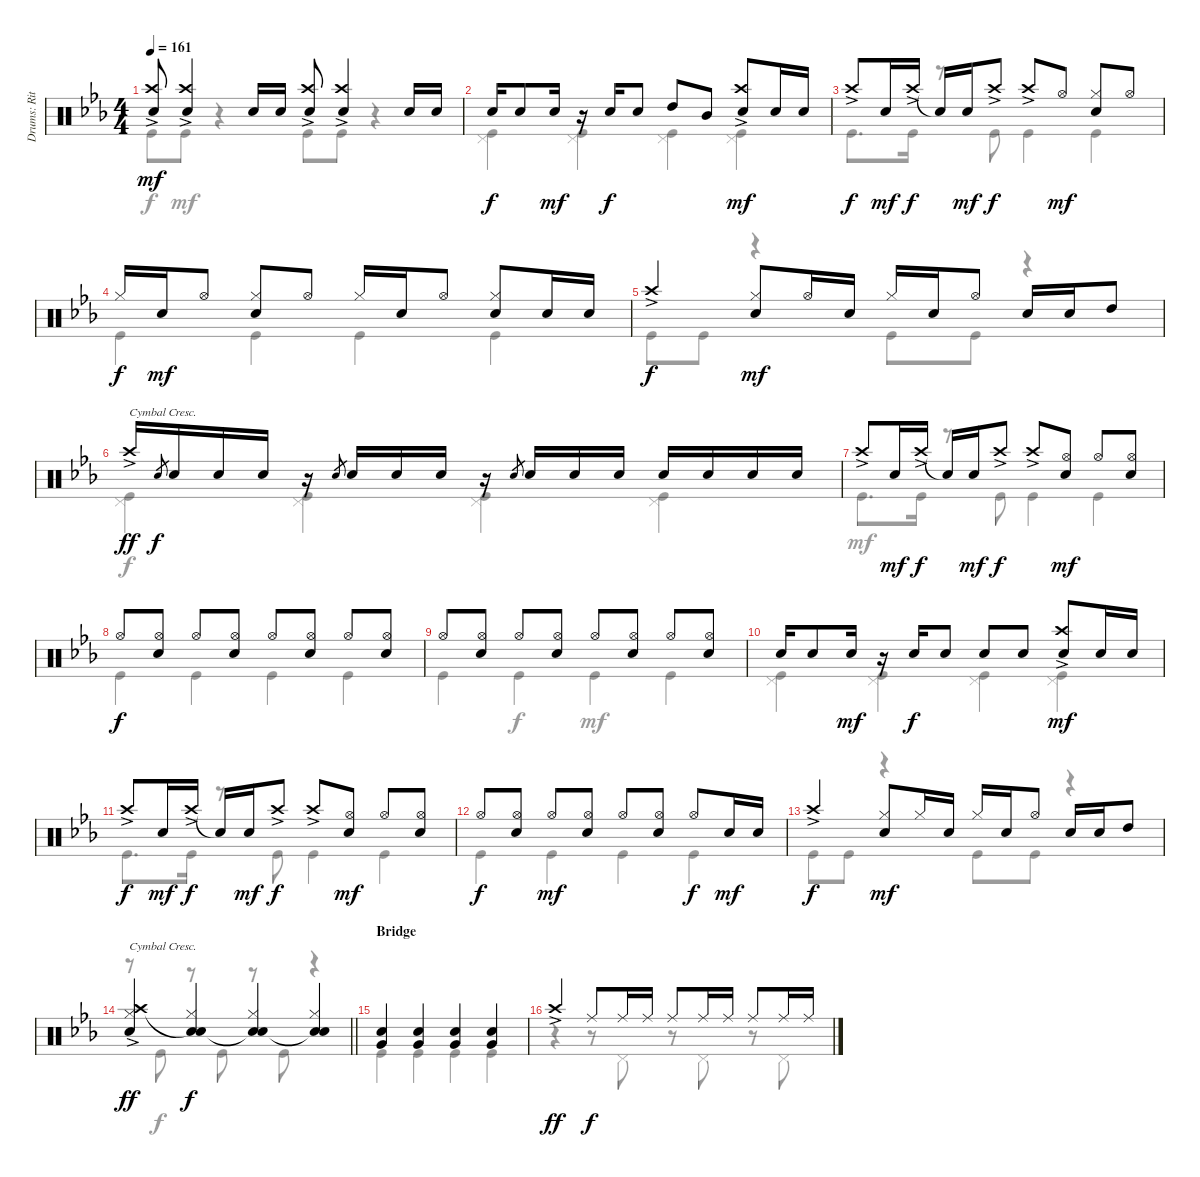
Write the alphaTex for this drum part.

\track ("Drums: Ritsu Tianaka" "Drums: Rit") {instrument percussion}
\staff {score}
\articulation defaults
\voice
\ts (4 4)
\tempo 161
\clef neutral
\ks eb
("Crash high (hit)"{ac} "Snare (hit) 2").8{dy mf} ("Crash high (hit)"{ac} "Snare (hit) 2").4 "Snare (hit) 2".16 "Snare (hit) 2".16 ("Crash high (hit)"{ac} "Snare (hit) 2").8 ("Crash high (hit)"{ac} "Snare (hit) 2").4 "Snare (hit) 2".16 "Snare (hit) 2".16 |
"Snare (hit) 2".16{dy f} "Snare (hit) 2".8 "Snare (hit) 2".16{dy mf} r.16 "Snare (hit) 2".16{dy f} "Snare (hit) 2".8 "High Tom (hit)".8 "Mid Tom (hit)".8 ("Crash high (hit)"{ac} "Snare (hit) 2").8{dy mf} "Snare (hit) 2".16 "Snare (hit) 2".16 |
"Crash high (hit)"{ac}.8{dy f} "Snare (hit) 2".16{dy mf} "Crash high (hit)"{ac}.16{dy f} "Snare (hit)"{t}.16 "Snare (hit) 2".16{dy mf} "Crash high (hit)"{ac}.8{dy f} "Crash high (hit)"{ac}.8 "Hi-Hat (open)".8{dy mf} ("Hi-Hat (closed)" "Snare (hit) 2").8 "Hi-Hat (open)".8 |
"Hi-Hat (closed)".16{dy f} "Snare (hit) 2".16{dy mf} "Hi-Hat (open)".8 ("Hi-Hat (closed)" "Snare (hit) 2").8 "Hi-Hat (open)".8 "Hi-Hat (closed)".16 "Snare (hit) 2".16 "Hi-Hat (open)".8 ("Hi-Hat (closed)" "Snare (hit) 2").8 "Snare (hit) 2".16 "Snare (hit) 2".16 |
"Crash high (hit)"{ac}.4{dy f} ("Hi-Hat (closed)" "Snare (hit) 2").8{dy mf} "Hi-Hat (open)".16 "Snare (hit) 2".16 "Hi-Hat (closed)".16 "Snare (hit) 2".16 "Hi-Hat (open)".8 "Snare (hit) 2".16 "Snare (hit) 2".16 "High Tom (hit)".8 |
"Crash high (hit)"{ac}.16{txt "Cymbal Cresc." dy ff} "Snare (hit) 2".8{gr dy f} "Snare (hit) 2".16 "Snare (hit) 2".16 "Snare (hit) 2".16 r.16 "Snare (hit) 2".8{gr} "Snare (hit) 2".16 "Snare (hit) 2".16 "Snare (hit) 2".16 r.16 "Snare (hit) 2".8{gr} "Snare (hit) 2".16 "Snare (hit) 2".16 "Snare (hit) 2".16 "Snare (hit) 2".16 "Snare (hit) 2".16 "Snare (hit) 2".16 "Snare (hit) 2".16 |
"Crash high (hit)"{ac}.8 "Snare (hit) 2".16{dy mf} "Crash high (hit)"{ac}.16{dy f} "Snare (hit)"{t}.16 "Snare (hit) 2".16{dy mf} "Crash high (hit)"{ac}.8{dy f} "Crash high (hit)"{ac}.8 ("Hi-Hat (open)" "Snare (hit) 2").8{dy mf} "Hi-Hat (open)".8 ("Hi-Hat (open)" "Snare (hit) 2").8 |
"Hi-Hat (open)".8{dy f} ("Hi-Hat (open)" "Snare (hit) 2").8 "Hi-Hat (open)".8 ("Hi-Hat (open)" "Snare (hit) 2").8 "Hi-Hat (open)".8 ("Hi-Hat (open)" "Snare (hit) 2").8 "Hi-Hat (open)".8 ("Hi-Hat (open)" "Snare (hit) 2").8 |
"Hi-Hat (open)".8 ("Hi-Hat (open)" "Snare (hit) 2").8 "Hi-Hat (open)".8 ("Hi-Hat (open)" "Snare (hit) 2").8 "Hi-Hat (open)".8 ("Hi-Hat (open)" "Snare (hit) 2").8 "Hi-Hat (open)".8 ("Hi-Hat (open)" "Snare (hit) 2").8 |
"Snare (hit) 2".16 "Snare (hit) 2".8 "Snare (hit) 2".16{dy mf} r.16 "Snare (hit) 2".16{dy f} "Snare (hit) 2".8 "Snare (hit) 2".8 "Snare (hit) 2".8 ("Crash high (hit)"{ac} "Snare (hit) 2").8{dy mf} "Snare (hit) 2".16 "Snare (hit) 2".16 |
"Crash high (hit)"{ac}.8{dy f} "Snare (hit) 2".16{dy mf} "Crash high (hit)"{ac}.16{dy f} "Snare (hit)"{t}.16 "Snare (hit) 2".16{dy mf} "Crash high (hit)"{ac}.8{dy f} "Crash high (hit)"{ac}.8 ("Hi-Hat (open)" "Snare (hit) 2").8{dy mf} "Hi-Hat (open)".8 ("Hi-Hat (open)" "Snare (hit) 2").8 |
"Hi-Hat (open)".8{dy f} ("Hi-Hat (open)" "Snare (hit) 2").8 "Hi-Hat (open)".8{dy mf} ("Hi-Hat (open)" "Snare (hit) 2").8 "Hi-Hat (open)".8 ("Hi-Hat (open)" "Snare (hit) 2").8 "Hi-Hat (open)".8{dy f} "Snare (hit) 2".16{dy mf} "Snare (hit) 2".16 |
"Crash high (hit)"{ac}.4{dy f} ("Hi-Hat (closed)" "Snare (hit) 2").8{dy mf} "Hi-Hat (closed)".16 "Snare (hit) 2".16 "Hi-Hat (closed)".16 "Snare (hit) 2".16 "Hi-Hat (open)".8 "Snare (hit) 2".16 "Snare (hit) 2".16 "High Tom (hit)".8 |
\barLineRight lightlight
("Crash high (hit)"{ac} "Hi-Hat (closed)" "Snare (hit) 2").4{txt "Cymbal Cresc." dy ff} ("Snare (hit)"{t} "Hi-Hat (closed)" "Snare (hit) 2").4{dy f} ("Snare (hit)"{t} "Hi-Hat (closed)" "Snare (hit) 2").4 ("Snare (hit)"{t} "Hi-Hat (closed)" "Snare (hit) 2").4 |
\section ("" "Bridge")
("Snare (hit) 2" "Very Low Tom (hit)").4 ("Snare (hit) 2" "Very Low Tom (hit)").4 ("Snare (hit) 2" "Very Low Tom (hit)").4 ("Snare (hit) 2" "Very Low Tom (hit)").4 |
"Crash high (hit)"{ac}.4{dy ff} "Ride (middle)".8{dy f} "Ride (middle)".16 "Ride (middle)".16 "Ride (middle)".8 "Ride (middle)".16 "Ride (middle)".16 "Ride (middle)".8 "Ride (middle)".16 "Ride (middle)".16
\voice
\clef neutral
\ottava regular
\simile none
\ks eb "Kick (hit)".8{dy f} "Kick (hit)".8{dy mf}
r.4 "Kick (hit)".8 "Kick (hit)".8 r.4 |
("Pedal Hi-Hat (hit)" "Kick (hit)").4 ("Pedal Hi-Hat (hit)" "Kick (hit)").4 ("Pedal Hi-Hat (hit)" "Kick (hit)").4 ("Pedal Hi-Hat (hit)" "Kick (hit)").4 |
"Kick (hit)".8{d} "Kick (hit)".16 r.8 "Kick (hit)".8 "Kick (hit)".4 "Kick (hit)".4 |
"Kick (hit)".4 "Kick (hit)".4 "Kick (hit)".4 "Kick (hit)".4 |
"Kick (hit)".8 "Kick (hit)".8 r.4 "Kick (hit)".8 "Kick (hit)".8 r.4 |
("Pedal Hi-Hat (hit)" "Kick (hit)").4{dy f} ("Pedal Hi-Hat (hit)" "Kick (hit)").4 ("Pedal Hi-Hat (hit)" "Kick (hit)").4 ("Pedal Hi-Hat (hit)" "Kick (hit)").4 |
"Kick (hit)".8{d dy mf} "Kick (hit)".16 r.8 "Kick (hit)".8 "Kick (hit)".4 "Kick (hit)".4 |
"Kick (hit)".4 "Kick (hit)".4 "Kick (hit)".4 "Kick (hit)".4 |
"Kick (hit)".4 "Kick (hit)".4{dy f} "Kick (hit)".4{dy mf} "Kick (hit)".4 |
("Pedal Hi-Hat (hit)" "Kick (hit)").4 ("Pedal Hi-Hat (hit)" "Kick (hit)").4 ("Pedal Hi-Hat (hit)" "Kick (hit)").4 ("Pedal Hi-Hat (hit)" "Kick (hit)").4 |
"Kick (hit)".8{d} "Kick (hit)".16 r.8 "Kick (hit)".8 "Kick (hit)".4 "Kick (hit)".4 |
"Kick (hit)".4 "Kick (hit)".4 "Kick (hit)".4 "Kick (hit)".4 |
"Kick (hit)".8 "Kick (hit)".8 r.4 "Kick (hit)".8 "Kick (hit)".8 r.4 |
\barLineRight lightlight
r.8 "Kick (hit)".8{dy f} r.8 "Kick (hit)".8 r.8 "Kick (hit)".8 r.4 |
"Kick (hit)".4 "Kick (hit)".4 "Kick (hit)".4 "Kick (hit)".4 |
r.4 r.8 "Pedal Hi-Hat (hit)".8 r.8 "Pedal Hi-Hat (hit)".8 r.8 "Pedal Hi-Hat (hit)".8
